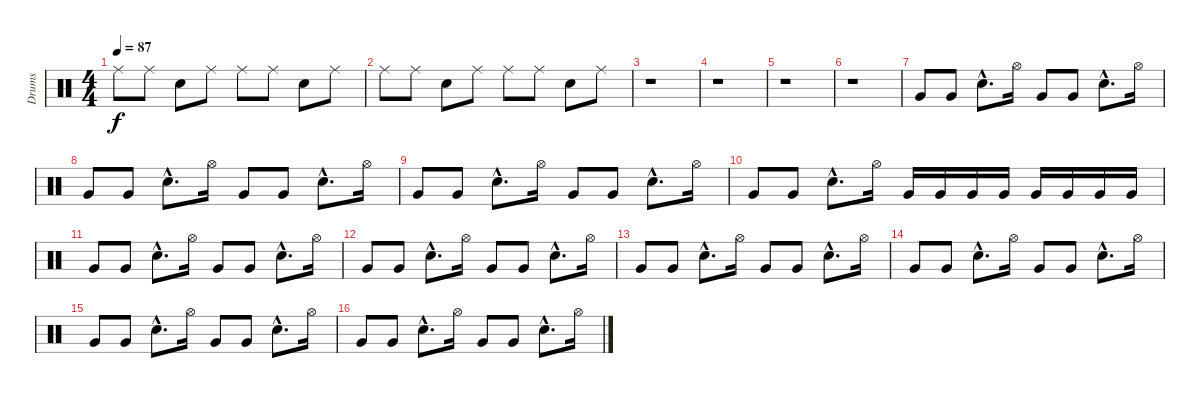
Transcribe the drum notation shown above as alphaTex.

\track ("Drums" "Drums") {instrument percussion}
\staff {score}
\articulation defaults
\ts (4 4)
\tempo 87
\clef neutral
\ks c "Ride (middle)".8{dy f} "Ride (middle)".8 "Electric Snare (hit)".8 "Ride (middle)".8 "Ride (middle)".8 "Ride (middle)".8 "Electric Snare (hit)".8 "Ride (middle)".8
|
"Ride (middle)".8 "Ride (middle)".8 "Electric Snare (hit)".8 "Ride (middle)".8 "Ride (middle)".8 "Ride (middle)".8 "Electric Snare (hit)".8 "Ride (middle)".8 |
r.1 |
r.1 |
r.1 |
r.1 |
"Very Low Tom (hit)".8 "Very Low Tom (hit)".8 "Snare (hit) 2"{hac}.8{d} "Hi-Hat (open)".16 "Very Low Tom (hit)".8 "Very Low Tom (hit)".8 "Snare (hit) 2"{hac}.8{d} "Hi-Hat (open)".16 |
"Very Low Tom (hit)".8 "Very Low Tom (hit)".8 "Snare (hit) 2"{hac}.8{d} "Hi-Hat (open)".16 "Very Low Tom (hit)".8 "Very Low Tom (hit)".8 "Snare (hit) 2"{hac}.8{d} "Hi-Hat (open)".16 |
"Very Low Tom (hit)".8 "Very Low Tom (hit)".8 "Snare (hit) 2"{hac}.8{d} "Hi-Hat (open)".16 "Very Low Tom (hit)".8 "Very Low Tom (hit)".8 "Snare (hit) 2"{hac}.8{d} "Hi-Hat (open)".16 |
"Very Low Tom (hit)".8 "Very Low Tom (hit)".8 "Snare (hit) 2"{hac}.8{d} "Hi-Hat (open)".16 "Very Low Tom (hit)".16 "Very Low Tom (hit)".16 "Very Low Tom (hit)".16 "Very Low Tom (hit)".16 "Very Low Tom (hit)".16 "Very Low Tom (hit)".16 "Very Low Tom (hit)".16 "Very Low Tom (hit)".16 |
"Very Low Tom (hit)".8 "Very Low Tom (hit)".8 "Snare (hit) 2"{hac}.8{d} "Hi-Hat (open)".16 "Very Low Tom (hit)".8 "Very Low Tom (hit)".8 "Snare (hit) 2"{hac}.8{d} "Hi-Hat (open)".16 |
"Very Low Tom (hit)".8 "Very Low Tom (hit)".8 "Snare (hit) 2"{hac}.8{d} "Hi-Hat (open)".16 "Very Low Tom (hit)".8 "Very Low Tom (hit)".8 "Snare (hit) 2"{hac}.8{d} "Hi-Hat (open)".16 |
"Very Low Tom (hit)".8 "Very Low Tom (hit)".8 "Snare (hit) 2"{hac}.8{d} "Hi-Hat (open)".16 "Very Low Tom (hit)".8 "Very Low Tom (hit)".8 "Snare (hit) 2"{hac}.8{d} "Hi-Hat (open)".16 |
"Very Low Tom (hit)".8 "Very Low Tom (hit)".8 "Snare (hit) 2"{hac}.8{d} "Hi-Hat (open)".16 "Very Low Tom (hit)".8 "Very Low Tom (hit)".8 "Snare (hit) 2"{hac}.8{d} "Hi-Hat (open)".16 |
"Very Low Tom (hit)".8 "Very Low Tom (hit)".8 "Snare (hit) 2"{hac}.8{d} "Hi-Hat (open)".16 "Very Low Tom (hit)".8 "Very Low Tom (hit)".8 "Snare (hit) 2"{hac}.8{d} "Hi-Hat (open)".16 |
"Very Low Tom (hit)".8 "Very Low Tom (hit)".8 "Snare (hit) 2"{hac}.8{d} "Hi-Hat (open)".16 "Very Low Tom (hit)".8 "Very Low Tom (hit)".8 "Snare (hit) 2"{hac}.8{d} "Hi-Hat (open)".16
